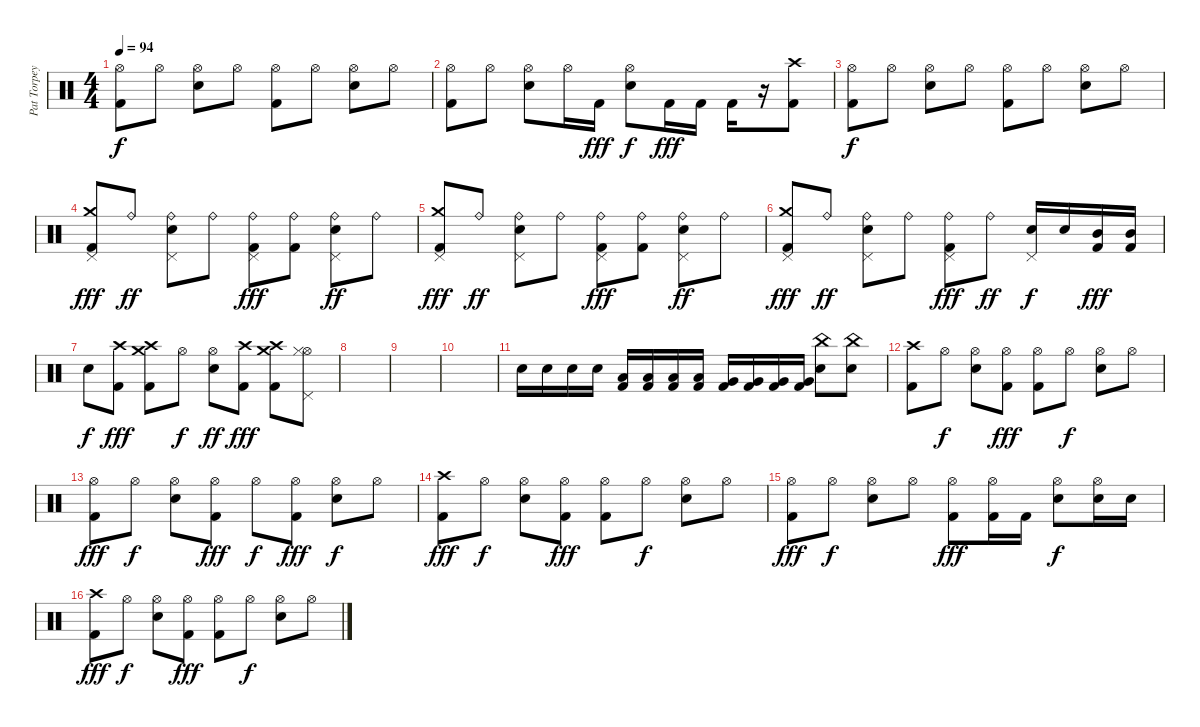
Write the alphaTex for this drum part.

\track ("Pat Torpey (Toro)" "Pat Torpey") {instrument percussion}
\staff {score}
\articulation defaults
\ts (4 4)
\tempo 94
\clef neutral
\ks c
("Hi-Hat (open)" "Kick (hit) 2").8{dy f} "Hi-Hat (open)".8 ("Hi-Hat (open)" "Snare (hit) 2").8 "Hi-Hat (open)".8 ("Hi-Hat (open)" "Kick (hit) 2").8 "Hi-Hat (open)".8 ("Hi-Hat (open)" "Snare (hit) 2").8 "Hi-Hat (open)".8 |
("Hi-Hat (open)" "Kick (hit) 2").8 "Hi-Hat (open)".8 ("Hi-Hat (open)" "Snare (hit) 2").8 "Hi-Hat (open)".16 "Kick (hit) 2".16{dy fff} ("Hi-Hat (open)" "Snare (hit) 2").8{dy f} "Kick (hit) 2".16{dy fff} "Kick (hit) 2".16 "Kick (hit) 2".16 r.16 ("Crash high (hit)" "Kick (hit) 2").8 |
("Hi-Hat (open)" "Kick (hit) 2").8{dy f} "Hi-Hat (open)".8 ("Hi-Hat (open)" "Snare (hit) 2").8 "Hi-Hat (open)".8 ("Hi-Hat (open)" "Kick (hit) 2").8 "Hi-Hat (open)".8 ("Hi-Hat (open)" "Snare (hit) 2").8 "Hi-Hat (open)".8 |
("Crash medium (hit)" "Kick (hit) 2" "Pedal Hi-Hat (hit)").8{dy fff} "Ride (bell)".8{dy ff} ("Ride (bell)" "Snare (hit) 2" "Pedal Hi-Hat (hit)").8 "Ride (bell)".8 ("Ride (bell)" "Kick (hit) 2" "Pedal Hi-Hat (hit)").8{dy fff} ("Ride (bell)" "Kick (hit) 2").8 ("Ride (bell)" "Snare (hit) 2" "Pedal Hi-Hat (hit)").8{dy ff} "Ride (bell)".8 |
("Crash medium (hit)" "Kick (hit) 2" "Pedal Hi-Hat (hit)").8{dy fff} "Ride (bell)".8{dy ff} ("Ride (bell)" "Snare (hit) 2" "Pedal Hi-Hat (hit)").8 "Ride (bell)".8 ("Ride (bell)" "Kick (hit) 2" "Pedal Hi-Hat (hit)").8{dy fff} ("Ride (bell)" "Kick (hit) 2").8 ("Ride (bell)" "Snare (hit) 2" "Pedal Hi-Hat (hit)").8{dy ff} "Ride (bell)".8 |
("Crash medium (hit)" "Kick (hit) 2" "Pedal Hi-Hat (hit)").8{dy fff} "Ride (bell)".8{dy ff} ("Ride (bell)" "Snare (hit) 2" "Pedal Hi-Hat (hit)").8 "Ride (bell)".8 ("Ride (bell)" "Kick (hit) 2" "Pedal Hi-Hat (hit)").8{dy fff} "Ride (bell)".8{dy ff} ("Snare (hit) 2" "Pedal Hi-Hat (hit)").16{dy f} "Snare (hit) 2".16 ("Mid Tom (hit)" "Kick (hit) 2").16{dy fff} ("Mid Tom (hit)" "Kick (hit) 2").16 |
"Snare (hit) 2".8{dy f} ("Crash high (hit)" "Kick (hit) 2").8{dy fff} ("Crash high (hit)" "Crash medium (hit)" "Kick (hit) 2").8 "Hi-Hat (open)".8{dy f} ("Hi-Hat (open)" "Snare (hit) 2").8{dy ff} ("Crash high (hit)" "Kick (hit) 2").8{dy fff} ("Crash high (hit)" "Crash medium (hit)" "Kick (hit) 2").8 ("Hi-Hat (open)" "Pedal Hi-Hat (hit)" "Hi-Hat (closed)").8 |
|
|
|
"Snare (hit) 2".16 "Snare (hit) 2".16 "Snare (hit) 2".16 "Snare (hit) 2".16 ("Low Tom (hit)" "Kick (hit) 2").16 ("Low Tom (hit)" "Kick (hit) 2").16 ("Low Tom (hit)" "Kick (hit) 2").16 ("Low Tom (hit)" "Kick (hit) 2").16 ("Very Low Tom (hit)" "Kick (hit) 2").16 ("Very Low Tom (hit)" "Kick (hit) 2").16 ("Very Low Tom (hit)" "Kick (hit) 2").16 ("Very Low Tom (hit)" "Kick (hit) 2").16 ("China (hit)" "Snare (hit) 2").8 ("China (hit)" "Snare (hit) 2").8 |
("Crash high (hit)" "Kick (hit) 2").8 "Hi-Hat (open)".8{dy f} ("Hi-Hat (open)" "Snare (hit) 2").8 ("Hi-Hat (open)" "Kick (hit) 2").8{dy fff} ("Hi-Hat (open)" "Kick (hit) 2").8 "Hi-Hat (open)".8{dy f} ("Hi-Hat (open)" "Snare (hit) 2").8 "Hi-Hat (open)".8 |
("Hi-Hat (open)" "Kick (hit) 2").8{dy fff} "Hi-Hat (open)".8{dy f} ("Hi-Hat (open)" "Snare (hit) 2").8 ("Hi-Hat (open)" "Kick (hit) 2").8{dy fff} "Hi-Hat (open)".8{dy f} ("Hi-Hat (open)" "Kick (hit) 2").8{dy fff} ("Hi-Hat (open)" "Snare (hit) 2").8{dy f} "Hi-Hat (open)".8 |
("Crash high (hit)" "Kick (hit) 2").8{dy fff} "Hi-Hat (open)".8{dy f} ("Hi-Hat (open)" "Snare (hit) 2").8 ("Hi-Hat (open)" "Kick (hit) 2").8{dy fff} ("Hi-Hat (open)" "Kick (hit) 2").8 "Hi-Hat (open)".8{dy f} ("Hi-Hat (open)" "Snare (hit) 2").8 "Hi-Hat (open)".8 |
("Hi-Hat (open)" "Kick (hit) 2").8{dy fff} "Hi-Hat (open)".8{dy f} ("Hi-Hat (open)" "Snare (hit) 2").8 "Hi-Hat (open)".8 ("Hi-Hat (open)" "Kick (hit) 2").8{dy fff} ("Hi-Hat (open)" "Kick (hit) 2").16 "Kick (hit) 2".16 ("Hi-Hat (open)" "Snare (hit) 2").8{dy f} ("Hi-Hat (open)" "Snare (hit) 2").16 "Snare (hit) 2".16 |
("Crash high (hit)" "Kick (hit) 2").8{dy fff} "Hi-Hat (open)".8{dy f} ("Hi-Hat (open)" "Snare (hit) 2").8 ("Hi-Hat (open)" "Kick (hit) 2").8{dy fff} ("Hi-Hat (open)" "Kick (hit) 2").8 "Hi-Hat (open)".8{dy f} ("Hi-Hat (open)" "Snare (hit) 2").8 "Hi-Hat (open)".8
